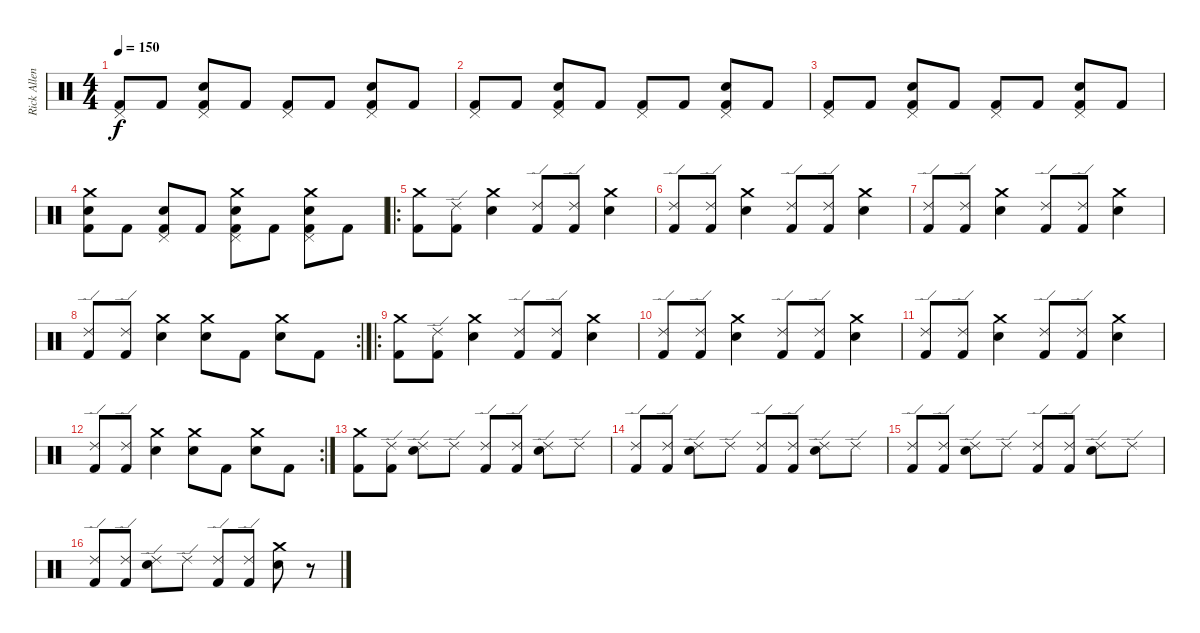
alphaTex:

\track ("Rick Allen" "Rick Allen") {instrument percussion}
\staff {score}
\articulation defaults
\ts (4 4)
\tempo 150
\clef neutral
\ks c
("Pedal Hi-Hat (hit)" "Kick (hit) 2").8{dy f} "Kick (hit) 2".8 ("Snare (hit) 2" "Pedal Hi-Hat (hit)" "Kick (hit) 2").8 "Kick (hit) 2".8 ("Pedal Hi-Hat (hit)" "Kick (hit) 2").8 "Kick (hit) 2".8 ("Snare (hit) 2" "Pedal Hi-Hat (hit)" "Kick (hit) 2").8 "Kick (hit) 2".8 |
("Pedal Hi-Hat (hit)" "Kick (hit) 2").8 "Kick (hit) 2".8 ("Snare (hit) 2" "Pedal Hi-Hat (hit)" "Kick (hit) 2").8 "Kick (hit) 2".8 ("Pedal Hi-Hat (hit)" "Kick (hit) 2").8 "Kick (hit) 2".8 ("Snare (hit) 2" "Pedal Hi-Hat (hit)" "Kick (hit) 2").8 "Kick (hit) 2".8 |
("Pedal Hi-Hat (hit)" "Kick (hit) 2").8 "Kick (hit) 2".8 ("Snare (hit) 2" "Pedal Hi-Hat (hit)" "Kick (hit) 2").8 "Kick (hit) 2".8 ("Pedal Hi-Hat (hit)" "Kick (hit) 2").8 "Kick (hit) 2".8 ("Snare (hit) 2" "Pedal Hi-Hat (hit)" "Kick (hit) 2").8 "Kick (hit) 2".8 |
("Crash medium (hit)" "Snare (hit) 2" "Kick (hit) 2").8 "Kick (hit) 2".8 ("Snare (hit) 2" "Pedal Hi-Hat (hit)" "Kick (hit) 2").8 "Kick (hit) 2".8 ("Crash medium (hit)" "Snare (hit) 2" "Pedal Hi-Hat (hit)" "Kick (hit) 2").8 "Kick (hit) 2".8 ("Crash medium (hit)" "Snare (hit) 2" "Pedal Hi-Hat (hit)" "Kick (hit) 2").8 "Kick (hit) 2".8 |
\ro
("Crash medium (hit)" "Kick (hit) 2").8 ("Ride (edge) 2" "Kick (hit) 2").8 ("Crash medium (hit)" "Snare (hit) 2").4 ("Ride (edge) 2" "Kick (hit) 2").8 ("Ride (edge) 2" "Kick (hit) 2").8 ("Crash medium (hit)" "Snare (hit) 2").4 |
("Ride (edge) 2" "Kick (hit) 2").8 ("Ride (edge) 2" "Kick (hit) 2").8 ("Crash medium (hit)" "Snare (hit) 2").4 ("Ride (edge) 2" "Kick (hit) 2").8 ("Ride (edge) 2" "Kick (hit) 2").8 ("Crash medium (hit)" "Snare (hit) 2").4 |
("Ride (edge) 2" "Kick (hit) 2").8 ("Ride (edge) 2" "Kick (hit) 2").8 ("Crash medium (hit)" "Snare (hit) 2").4 ("Ride (edge) 2" "Kick (hit) 2").8 ("Ride (edge) 2" "Kick (hit) 2").8 ("Crash medium (hit)" "Snare (hit) 2").4 |
\rc 2
("Ride (edge) 2" "Kick (hit) 2").8 ("Ride (edge) 2" "Kick (hit) 2").8 ("Crash medium (hit)" "Snare (hit) 2").4 ("Crash medium (hit)" "Snare (hit) 2").8 "Kick (hit) 2".8 ("Crash medium (hit)" "Snare (hit) 2").8 "Kick (hit) 2".8 |
\ro
("Crash medium (hit)" "Kick (hit) 2").8 ("Ride (edge) 2" "Kick (hit) 2").8 ("Crash medium (hit)" "Snare (hit) 2").4 ("Ride (edge) 2" "Kick (hit) 2").8 ("Ride (edge) 2" "Kick (hit) 2").8 ("Crash medium (hit)" "Snare (hit) 2").4 |
("Ride (edge) 2" "Kick (hit) 2").8 ("Ride (edge) 2" "Kick (hit) 2").8 ("Crash medium (hit)" "Snare (hit) 2").4 ("Ride (edge) 2" "Kick (hit) 2").8 ("Ride (edge) 2" "Kick (hit) 2").8 ("Crash medium (hit)" "Snare (hit) 2").4 |
("Ride (edge) 2" "Kick (hit) 2").8 ("Ride (edge) 2" "Kick (hit) 2").8 ("Crash medium (hit)" "Snare (hit) 2").4 ("Ride (edge) 2" "Kick (hit) 2").8 ("Ride (edge) 2" "Kick (hit) 2").8 ("Crash medium (hit)" "Snare (hit) 2").4 |
\rc 2
("Ride (edge) 2" "Kick (hit) 2").8 ("Ride (edge) 2" "Kick (hit) 2").8 ("Crash medium (hit)" "Snare (hit) 2").4 ("Crash medium (hit)" "Snare (hit) 2").8 "Kick (hit) 2".8 ("Crash medium (hit)" "Snare (hit) 2").8 "Kick (hit) 2".8 |
("Crash medium (hit)" "Kick (hit) 2").8 ("Ride (edge) 2" "Kick (hit) 2").8 ("Ride (edge) 2" "Snare (hit) 2").8 "Ride (edge) 2".8 ("Ride (edge) 2" "Kick (hit) 2").8 ("Ride (edge) 2" "Kick (hit) 2").8 ("Ride (edge) 2" "Snare (hit) 2").8 "Ride (edge) 2".8 |
("Ride (edge) 2" "Kick (hit) 2").8 ("Ride (edge) 2" "Kick (hit) 2").8 ("Ride (edge) 2" "Snare (hit) 2").8 "Ride (edge) 2".8 ("Ride (edge) 2" "Kick (hit) 2").8 ("Ride (edge) 2" "Kick (hit) 2").8 ("Ride (edge) 2" "Snare (hit) 2").8 "Ride (edge) 2".8 |
("Ride (edge) 2" "Kick (hit) 2").8 ("Ride (edge) 2" "Kick (hit) 2").8 ("Ride (edge) 2" "Snare (hit) 2").8 "Ride (edge) 2".8 ("Ride (edge) 2" "Kick (hit) 2").8 ("Ride (edge) 2" "Kick (hit) 2").8 ("Ride (edge) 2" "Snare (hit) 2").8 "Ride (edge) 2".8 |
("Ride (edge) 2" "Kick (hit) 2").8 ("Ride (edge) 2" "Kick (hit) 2").8 ("Ride (edge) 2" "Snare (hit) 2").8 "Ride (edge) 2".8 ("Ride (edge) 2" "Kick (hit) 2").8 ("Ride (edge) 2" "Kick (hit) 2").8 ("Crash medium (hit)" "Snare (hit) 2").8 r.8
